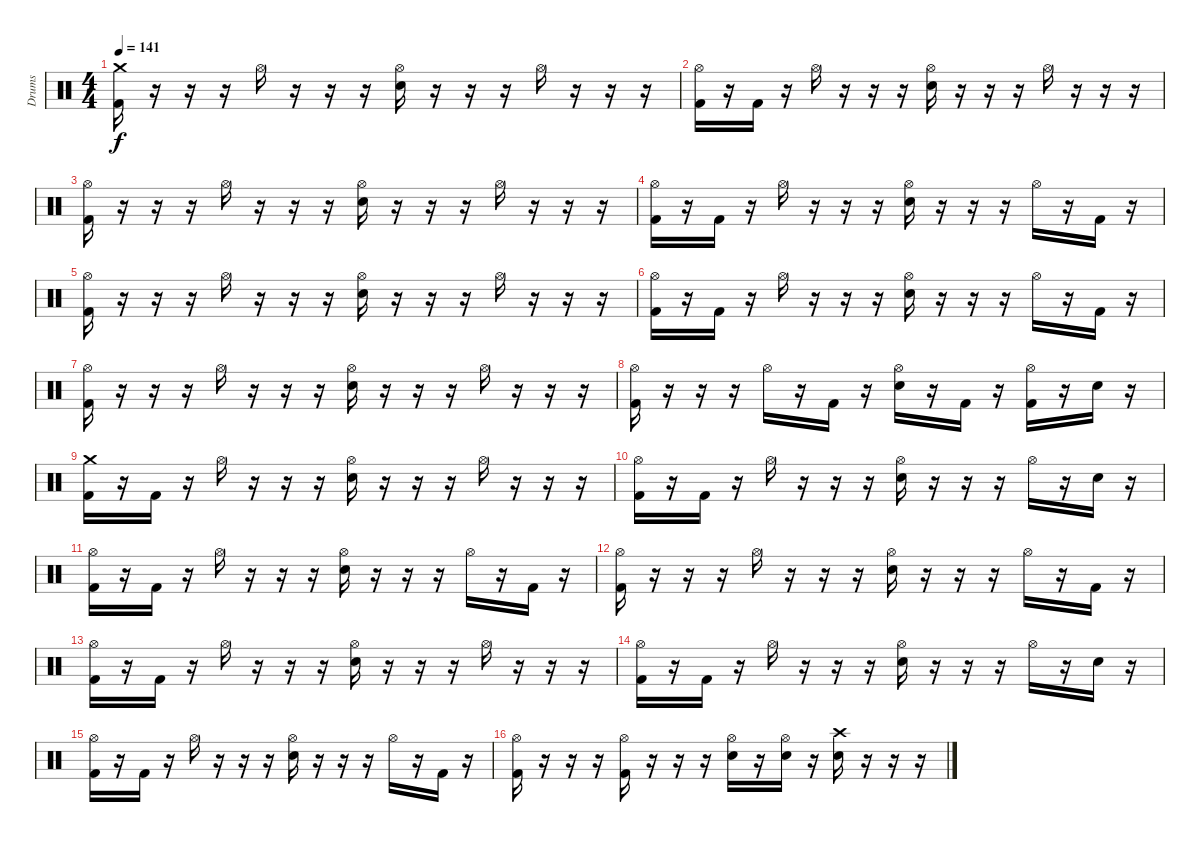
\track ("Drums" "Drums") {instrument percussion}
\staff {score}
\articulation defaults
\ts (4 4)
\section ("" "")
\tempo 141
\clef neutral
\ks c
("Crash medium (hit)" "Kick (hit) 2").16{dy f} r.16 r.16 r.16 "Hi-Hat (open)".16 r.16 r.16 r.16 ("Hi-Hat (open)" "Electric Snare (hit)").16 r.16 r.16 r.16 "Hi-Hat (open)".16 r.16 r.16 r.16 |
("Hi-Hat (open)" "Kick (hit) 2").16 r.16 "Kick (hit) 2".16 r.16 "Hi-Hat (open)".16 r.16 r.16 r.16 ("Hi-Hat (open)" "Electric Snare (hit)").16 r.16 r.16 r.16 "Hi-Hat (open)".16 r.16 r.16 r.16 |
("Hi-Hat (open)" "Kick (hit) 2").16 r.16 r.16 r.16 "Hi-Hat (open)".16 r.16 r.16 r.16 ("Hi-Hat (open)" "Electric Snare (hit)").16 r.16 r.16 r.16 "Hi-Hat (open)".16 r.16 r.16 r.16 |
("Hi-Hat (open)" "Kick (hit) 2").16 r.16 "Kick (hit) 2".16 r.16 "Hi-Hat (open)".16 r.16 r.16 r.16 ("Hi-Hat (open)" "Electric Snare (hit)").16 r.16 r.16 r.16 "Hi-Hat (open)".16 r.16 "Kick (hit) 2".16 r.16 |
("Hi-Hat (open)" "Kick (hit) 2").16 r.16 r.16 r.16 "Hi-Hat (open)".16 r.16 r.16 r.16 ("Hi-Hat (open)" "Electric Snare (hit)").16 r.16 r.16 r.16 "Hi-Hat (open)".16 r.16 r.16 r.16 |
("Hi-Hat (open)" "Kick (hit) 2").16 r.16 "Kick (hit) 2".16 r.16 "Hi-Hat (open)".16 r.16 r.16 r.16 ("Hi-Hat (open)" "Electric Snare (hit)").16 r.16 r.16 r.16 "Hi-Hat (open)".16 r.16 "Kick (hit) 2".16 r.16 |
("Hi-Hat (open)" "Kick (hit) 2").16 r.16 r.16 r.16 "Hi-Hat (open)".16 r.16 r.16 r.16 ("Hi-Hat (open)" "Electric Snare (hit)").16 r.16 r.16 r.16 "Hi-Hat (open)".16 r.16 r.16 r.16 |
("Hi-Hat (open)" "Kick (hit) 2").16 r.16 r.16 r.16 "Hi-Hat (open)".16 r.16 "Kick (hit) 2".16 r.16 ("Hi-Hat (open)" "Electric Snare (hit)").16 r.16 "Kick (hit) 2".16 r.16 ("Hi-Hat (open)" "Kick (hit) 2").16 r.16 "Electric Snare (hit)".16 r.16 |
("Crash medium (hit)" "Kick (hit) 2").16 r.16 "Kick (hit) 2".16 r.16 "Hi-Hat (open)".16 r.16 r.16 r.16 ("Hi-Hat (open)" "Electric Snare (hit)").16 r.16 r.16 r.16 "Hi-Hat (open)".16 r.16 r.16 r.16 |
("Hi-Hat (open)" "Kick (hit) 2").16 r.16 "Kick (hit) 2".16 r.16 "Hi-Hat (open)".16 r.16 r.16 r.16 ("Hi-Hat (open)" "Electric Snare (hit)").16 r.16 r.16 r.16 "Hi-Hat (open)".16 r.16 "Electric Snare (hit)".16 r.16 |
("Hi-Hat (open)" "Kick (hit) 2").16 r.16 "Kick (hit) 2".16 r.16 "Hi-Hat (open)".16 r.16 r.16 r.16 ("Hi-Hat (open)" "Electric Snare (hit)").16 r.16 r.16 r.16 "Hi-Hat (open)".16 r.16 "Kick (hit) 2".16 r.16 |
("Hi-Hat (open)" "Kick (hit) 2").16 r.16 r.16 r.16 "Hi-Hat (open)".16 r.16 r.16 r.16 ("Hi-Hat (open)" "Electric Snare (hit)").16 r.16 r.16 r.16 "Hi-Hat (open)".16 r.16 "Kick (hit) 2".16 r.16 |
("Hi-Hat (open)" "Kick (hit) 2").16 r.16 "Kick (hit) 2".16 r.16 "Hi-Hat (open)".16 r.16 r.16 r.16 ("Hi-Hat (open)" "Electric Snare (hit)").16 r.16 r.16 r.16 "Hi-Hat (open)".16 r.16 r.16 r.16 |
("Hi-Hat (open)" "Kick (hit) 2").16 r.16 "Kick (hit) 2".16 r.16 "Hi-Hat (open)".16 r.16 r.16 r.16 ("Hi-Hat (open)" "Electric Snare (hit)").16 r.16 r.16 r.16 "Hi-Hat (open)".16 r.16 "Electric Snare (hit)".16 r.16 |
("Hi-Hat (open)" "Kick (hit) 2").16 r.16 "Kick (hit) 2".16 r.16 "Hi-Hat (open)".16 r.16 r.16 r.16 ("Hi-Hat (open)" "Electric Snare (hit)").16 r.16 r.16 r.16 "Hi-Hat (open)".16 r.16 "Kick (hit) 2".16 r.16 |
("Hi-Hat (open)" "Kick (hit) 2").16 r.16 r.16 r.16 ("Hi-Hat (open)" "Kick (hit) 2").16 r.16 r.16 r.16 ("Hi-Hat (open)" "Electric Snare (hit)").16 r.16 ("Hi-Hat (open)" "Electric Snare (hit)").16 r.16 ("Crash high (hit)" "Electric Snare (hit)").16 r.16 r.16 r.16
